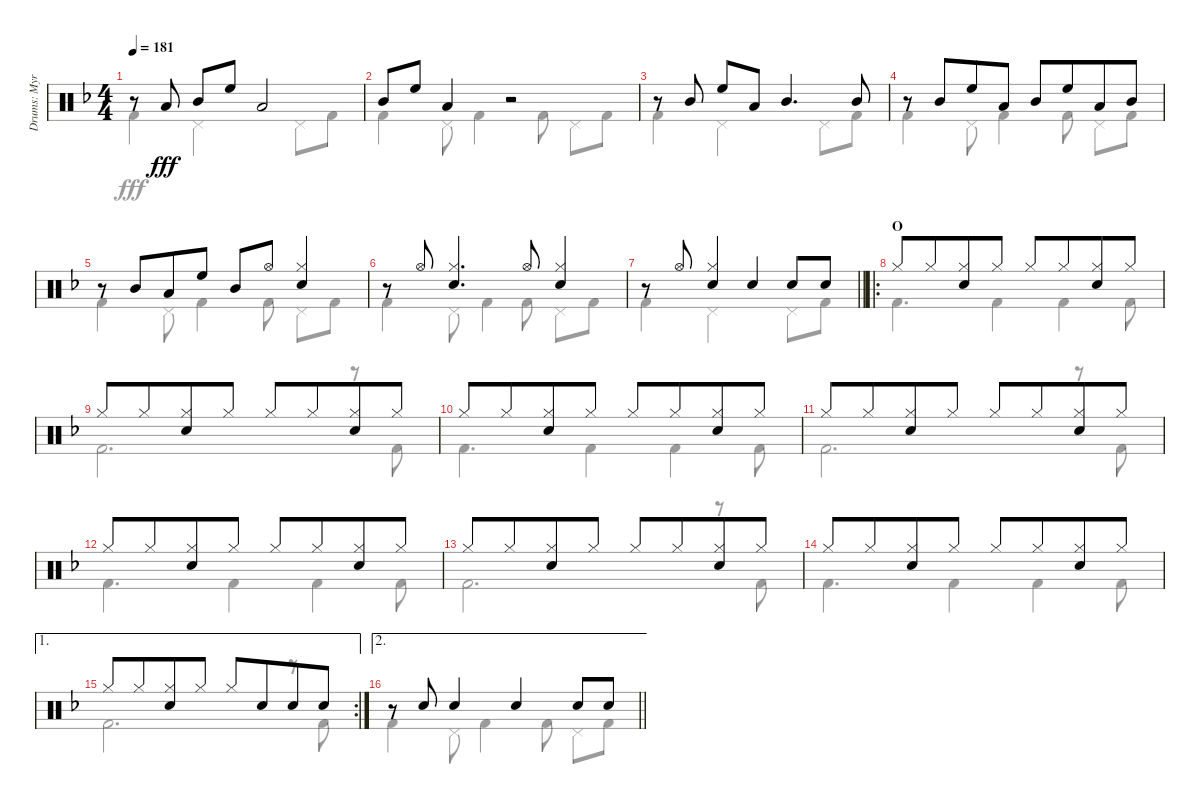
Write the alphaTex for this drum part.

\track ("Drums: Myron" "Drums: Myr") {instrument percussion}
\staff {score}
\articulation defaults
\voice
\ts (4 4)
\tempo 181
\clef neutral
\ks f
r.8{dy fff} "Low Tom (hit)".8 "Mid Tom (hit)".8 "High Floor Tom (hit)".8 "Low Tom (hit)".2 |
"Mid Tom (hit)".8 "High Floor Tom (hit)".8 "Low Tom (hit)".4 r.2 |
r.8 "Mid Tom (hit)".8 "High Floor Tom (hit)".8 "Low Tom (hit)".8 "Mid Tom (hit)".4{d} "Mid Tom (hit)".8 |
r.8 "Mid Tom (hit)".8{beam merge} "High Floor Tom (hit)".8 "Low Tom (hit)".8 "Mid Tom (hit)".8 "High Floor Tom (hit)".8{beam merge} "Low Tom (hit)".8 "Mid Tom (hit)".8 |
r.8 "Mid Tom (hit)".8{beam merge} "Low Tom (hit)".8 "High Floor Tom (hit)".8 "Mid Tom (hit)".8 "Hi-Hat (open)".8 ("Hi-Hat (closed)" "Snare (hit) 2").4 |
r.8 "Hi-Hat (open)".8 ("Hi-Hat (closed)" "Snare (hit) 2").4{d} "Hi-Hat (open)".8 ("Hi-Hat (closed)" "Snare (hit) 2").4 |
\barLineRight lightlight
r.8 "Hi-Hat (open)".8 ("Hi-Hat (closed)" "Snare (hit) 2").4 "Electric Snare (hit)".4 "Electric Snare (hit)".8 "Electric Snare (hit)".8 |
\ro
\section ("" "O")
"Hi-Hat (closed)".8 "Hi-Hat (closed)".8{beam merge} ("Hi-Hat (closed)" "Electric Snare (hit)").8 "Hi-Hat (closed)".8 "Hi-Hat (closed)".8 "Hi-Hat (closed)".8{beam merge} ("Hi-Hat (closed)" "Electric Snare (hit)").8 "Hi-Hat (closed)".8 |
"Hi-Hat (closed)".8 "Hi-Hat (closed)".8{beam merge} ("Hi-Hat (closed)" "Electric Snare (hit)").8 "Hi-Hat (closed)".8 "Hi-Hat (closed)".8 "Hi-Hat (closed)".8{beam merge} ("Hi-Hat (closed)" "Electric Snare (hit)").8 "Hi-Hat (closed)".8 |
"Hi-Hat (closed)".8 "Hi-Hat (closed)".8{beam merge} ("Hi-Hat (closed)" "Electric Snare (hit)").8 "Hi-Hat (closed)".8 "Hi-Hat (closed)".8 "Hi-Hat (closed)".8{beam merge} ("Hi-Hat (closed)" "Electric Snare (hit)").8 "Hi-Hat (closed)".8 |
"Hi-Hat (closed)".8 "Hi-Hat (closed)".8{beam merge} ("Hi-Hat (closed)" "Electric Snare (hit)").8 "Hi-Hat (closed)".8 "Hi-Hat (closed)".8 "Hi-Hat (closed)".8{beam merge} ("Hi-Hat (closed)" "Electric Snare (hit)").8 "Hi-Hat (closed)".8 |
"Hi-Hat (closed)".8 "Hi-Hat (closed)".8{beam merge} ("Hi-Hat (closed)" "Electric Snare (hit)").8 "Hi-Hat (closed)".8 "Hi-Hat (closed)".8 "Hi-Hat (closed)".8{beam merge} ("Hi-Hat (closed)" "Electric Snare (hit)").8 "Hi-Hat (closed)".8 |
"Hi-Hat (closed)".8 "Hi-Hat (closed)".8{beam merge} ("Hi-Hat (closed)" "Electric Snare (hit)").8 "Hi-Hat (closed)".8 "Hi-Hat (closed)".8 "Hi-Hat (closed)".8{beam merge} ("Hi-Hat (closed)" "Electric Snare (hit)").8 "Hi-Hat (closed)".8 |
"Hi-Hat (closed)".8 "Hi-Hat (closed)".8{beam merge} ("Hi-Hat (closed)" "Electric Snare (hit)").8 "Hi-Hat (closed)".8 "Hi-Hat (closed)".8 "Hi-Hat (closed)".8{beam merge} ("Hi-Hat (closed)" "Electric Snare (hit)").8 "Hi-Hat (closed)".8 |
\ae 1
\rc 2 "Hi-Hat (closed)".8 "Hi-Hat (closed)".8{beam merge}
("Hi-Hat (closed)" "Electric Snare (hit)").8 "Hi-Hat (closed)".8 "Hi-Hat (closed)".8 "Electric Snare (hit)".8{beam merge} "Electric Snare (hit)".8 "Electric Snare (hit)".8 |
\ae 2
\barLineRight lightlight
r.8 "Electric Snare (hit)".8 "Electric Snare (hit)".4 "Electric Snare (hit)".4 "Electric Snare (hit)".8 "Electric Snare (hit)".8
\voice
\clef neutral
\ottava regular
\simile none
\ks f "Kick (hit) 2".4{dy fff} "Pedal Hi-Hat (hit)".2 "Pedal Hi-Hat (hit)".8 "Kick (hit) 2".8
|
"Kick (hit) 2".4 "Pedal Hi-Hat (hit)".8 "Kick (hit) 2".4 "Kick (hit) 2".8 "Pedal Hi-Hat (hit)".8 "Kick (hit) 2".8 |
"Kick (hit) 2".4 "Pedal Hi-Hat (hit)".2 "Pedal Hi-Hat (hit)".8 "Kick (hit) 2".8 |
"Kick (hit) 2".4 "Pedal Hi-Hat (hit)".8 "Kick (hit) 2".4 "Kick (hit) 2".8 "Pedal Hi-Hat (hit)".8 "Kick (hit) 2".8 |
"Kick (hit) 2".4 "Pedal Hi-Hat (hit)".8 "Kick (hit) 2".4 "Kick (hit) 2".8 "Pedal Hi-Hat (hit)".8 "Kick (hit) 2".8 |
"Kick (hit) 2".4 "Pedal Hi-Hat (hit)".8 "Kick (hit) 2".4 "Kick (hit) 2".8 "Pedal Hi-Hat (hit)".8 "Kick (hit) 2".8 |
\barLineRight lightlight "Kick (hit) 2".4 "Pedal Hi-Hat (hit)".2 "Pedal Hi-Hat (hit)".8 "Kick (hit) 2".8
|
"Kick (hit) 2".4{d} "Kick (hit) 2".4 "Kick (hit) 2".4 "Kick (hit) 2".8 |
"Kick (hit) 2".2{d} r.8 "Kick (hit) 2".8 |
"Kick (hit) 2".4{d} "Kick (hit) 2".4 "Kick (hit) 2".4 "Kick (hit) 2".8 |
"Kick (hit) 2".2{d} r.8 "Kick (hit) 2".8 |
"Kick (hit) 2".4{d} "Kick (hit) 2".4 "Kick (hit) 2".4 "Kick (hit) 2".8 |
"Kick (hit) 2".2{d} r.8 "Kick (hit) 2".8 |
"Kick (hit) 2".4{d} "Kick (hit) 2".4 "Kick (hit) 2".4 "Kick (hit) 2".8 |
"Kick (hit) 2".2{d} r.8 "Kick (hit) 2".8 |
\barLineRight lightlight "Kick (hit) 2".4 "Pedal Hi-Hat (hit)".8 "Kick (hit) 2".4 "Kick (hit) 2".8 "Pedal Hi-Hat (hit)".8 "Kick (hit) 2".8
